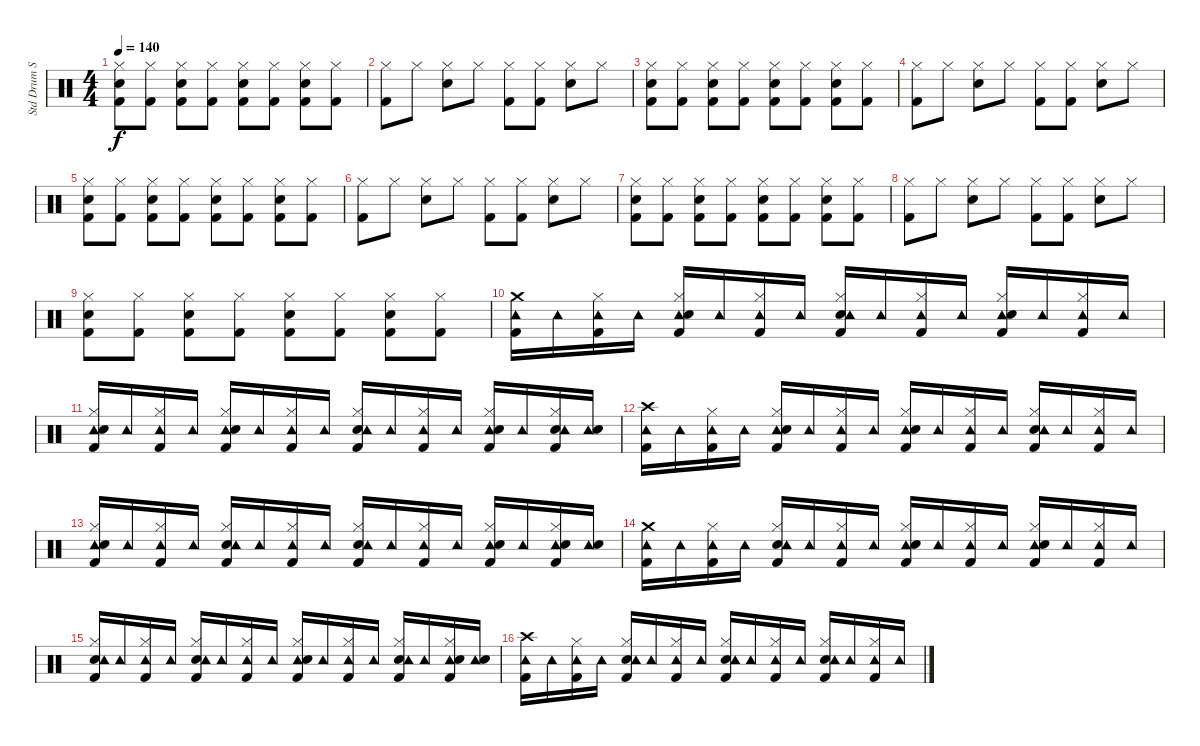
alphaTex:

\track ("Std Drum Set" "Std Drum S") {instrument percussion}
\staff {score}
\articulation defaults
\ts (4 4)
\tempo 140
\clef neutral
\ks c
("Kick (hit) 2" "Snare (hit) 2" "Hi-Hat (closed)").8{dy f} ("Hi-Hat (closed)" "Kick (hit) 2").8 ("Kick (hit) 2" "Hi-Hat (closed)" "Snare (hit) 2").8 ("Kick (hit) 2" "Hi-Hat (closed)").8 ("Snare (hit) 2" "Kick (hit) 2" "Hi-Hat (closed)").8 ("Hi-Hat (closed)" "Kick (hit) 2").8 ("Kick (hit) 2" "Snare (hit) 2" "Hi-Hat (closed)").8 ("Hi-Hat (closed)" "Kick (hit) 2").8 |
("Kick (hit) 2" "Hi-Hat (closed)").8 "Hi-Hat (closed)".8 ("Hi-Hat (closed)" "Snare (hit) 2").8 "Hi-Hat (closed)".8 ("Hi-Hat (closed)" "Kick (hit) 2").8 ("Kick (hit) 2" "Hi-Hat (closed)").8 ("Hi-Hat (closed)" "Snare (hit) 2").8 "Hi-Hat (closed)".8 |
("Snare (hit) 2" "Hi-Hat (closed)" "Kick (hit) 2").8 ("Hi-Hat (closed)" "Kick (hit) 2").8 ("Hi-Hat (closed)" "Kick (hit) 2" "Snare (hit) 2").8 ("Hi-Hat (closed)" "Kick (hit) 2").8 ("Kick (hit) 2" "Snare (hit) 2" "Hi-Hat (closed)").8 ("Kick (hit) 2" "Hi-Hat (closed)").8 ("Hi-Hat (closed)" "Kick (hit) 2" "Snare (hit) 2").8 ("Kick (hit) 2" "Hi-Hat (closed)").8 |
("Kick (hit) 2" "Hi-Hat (closed)").8 "Hi-Hat (closed)".8 ("Hi-Hat (closed)" "Snare (hit) 2").8 "Hi-Hat (closed)".8 ("Kick (hit) 2" "Hi-Hat (closed)").8 ("Hi-Hat (closed)" "Kick (hit) 2").8 ("Snare (hit) 2" "Hi-Hat (closed)").8 "Hi-Hat (closed)".8 |
("Hi-Hat (closed)" "Kick (hit) 2" "Snare (hit) 2").8 ("Hi-Hat (closed)" "Kick (hit) 2").8 ("Hi-Hat (closed)" "Kick (hit) 2" "Snare (hit) 2").8 ("Hi-Hat (closed)" "Kick (hit) 2").8 ("Hi-Hat (closed)" "Snare (hit) 2" "Kick (hit) 2").8 ("Hi-Hat (closed)" "Kick (hit) 2").8 ("Kick (hit) 2" "Hi-Hat (closed)" "Snare (hit) 2").8 ("Hi-Hat (closed)" "Kick (hit) 2").8 |
("Kick (hit) 2" "Hi-Hat (closed)").8 "Hi-Hat (closed)".8 ("Snare (hit) 2" "Hi-Hat (closed)").8 "Hi-Hat (closed)".8 ("Kick (hit) 2" "Hi-Hat (closed)").8 ("Kick (hit) 2" "Hi-Hat (closed)").8 ("Hi-Hat (closed)" "Snare (hit) 2").8 "Hi-Hat (closed)".8 |
("Snare (hit) 2" "Kick (hit) 2" "Hi-Hat (closed)").8 ("Hi-Hat (closed)" "Kick (hit) 2").8 ("Snare (hit) 2" "Kick (hit) 2" "Hi-Hat (closed)").8 ("Kick (hit) 2" "Hi-Hat (closed)").8 ("Kick (hit) 2" "Snare (hit) 2" "Hi-Hat (closed)").8 ("Kick (hit) 2" "Hi-Hat (closed)").8 ("Hi-Hat (closed)" "Snare (hit) 2" "Kick (hit) 2").8 ("Hi-Hat (closed)" "Kick (hit) 2").8 |
("Kick (hit) 2" "Hi-Hat (closed)").8 "Hi-Hat (closed)".8 ("Hi-Hat (closed)" "Snare (hit) 2").8 "Hi-Hat (closed)".8 ("Hi-Hat (closed)" "Kick (hit) 2").8 ("Kick (hit) 2" "Hi-Hat (closed)").8 ("Hi-Hat (closed)" "Snare (hit) 2").8 "Hi-Hat (closed)".8 |
("Hi-Hat (closed)" "Snare (hit) 2" "Kick (hit) 2").8 ("Kick (hit) 2" "Hi-Hat (closed)").8 ("Hi-Hat (closed)" "Snare (hit) 2" "Kick (hit) 2").8 ("Kick (hit) 2" "Hi-Hat (closed)").8 ("Kick (hit) 2" "Snare (hit) 2" "Hi-Hat (closed)").8 ("Hi-Hat (closed)" "Kick (hit) 2").8 ("Hi-Hat (closed)" "Snare (hit) 2" "Kick (hit) 2").8 ("Kick (hit) 2" "Hi-Hat (closed)").8 |
("Tambourine (hit)" "Kick (hit) 2" "Crash medium (hit)").16 "Tambourine (hit)".16 ("Kick (hit) 2" "Hi-Hat (closed)" "Tambourine (hit)").16 "Tambourine (hit)".16 ("Tambourine (hit)" "Hi-Hat (closed)" "Snare (hit) 2" "Kick (hit) 2").16 "Tambourine (hit)".16 ("Kick (hit) 2" "Hi-Hat (closed)" "Tambourine (hit)").16 "Tambourine (hit)".16 ("Hi-Hat (closed)" "Snare (hit) 2" "Tambourine (hit)" "Kick (hit) 2").16 "Tambourine (hit)".16 ("Hi-Hat (closed)" "Tambourine (hit)" "Kick (hit) 2").16 "Tambourine (hit)".16 ("Hi-Hat (closed)" "Kick (hit) 2" "Tambourine (hit)" "Snare (hit) 2").16 "Tambourine (hit)".16 ("Kick (hit) 2" "Hi-Hat (closed)" "Tambourine (hit)").16 "Tambourine (hit)".16 |
("Hi-Hat (closed)" "Tambourine (hit)" "Kick (hit) 2" "Snare (hit) 2").16 "Tambourine (hit)".16 ("Hi-Hat (closed)" "Tambourine (hit)" "Kick (hit) 2").16 "Tambourine (hit)".16 ("Kick (hit) 2" "Hi-Hat (closed)" "Tambourine (hit)" "Snare (hit) 2").16 "Tambourine (hit)".16 ("Tambourine (hit)" "Hi-Hat (closed)" "Kick (hit) 2").16 "Tambourine (hit)".16 ("Snare (hit) 2" "Hi-Hat (closed)" "Kick (hit) 2" "Tambourine (hit)").16 "Tambourine (hit)".16 ("Tambourine (hit)" "Kick (hit) 2" "Hi-Hat (closed)").16 "Tambourine (hit)".16 ("Tambourine (hit)" "Kick (hit) 2" "Hi-Hat (closed)" "Snare (hit) 2").16 "Tambourine (hit)".16 ("Snare (hit) 2" "Tambourine (hit)" "Hi-Hat (closed)" "Kick (hit) 2").16 ("Tambourine (hit)" "Snare (hit) 2").16 |
("Tambourine (hit)" "Crash high (hit)" "Kick (hit) 2").16 "Tambourine (hit)".16 ("Hi-Hat (closed)" "Kick (hit) 2" "Tambourine (hit)").16 "Tambourine (hit)".16 ("Kick (hit) 2" "Tambourine (hit)" "Snare (hit) 2" "Hi-Hat (closed)").16 "Tambourine (hit)".16 ("Hi-Hat (closed)" "Kick (hit) 2" "Tambourine (hit)").16 "Tambourine (hit)".16 ("Hi-Hat (closed)" "Tambourine (hit)" "Snare (hit) 2" "Kick (hit) 2").16 "Tambourine (hit)".16 ("Tambourine (hit)" "Hi-Hat (closed)" "Kick (hit) 2").16 "Tambourine (hit)".16 ("Kick (hit) 2" "Snare (hit) 2" "Hi-Hat (closed)" "Tambourine (hit)").16 "Tambourine (hit)".16 ("Hi-Hat (closed)" "Tambourine (hit)" "Kick (hit) 2").16 "Tambourine (hit)".16 |
("Tambourine (hit)" "Hi-Hat (closed)" "Snare (hit) 2" "Kick (hit) 2").16 "Tambourine (hit)".16 ("Kick (hit) 2" "Tambourine (hit)" "Hi-Hat (closed)").16 "Tambourine (hit)".16 ("Snare (hit) 2" "Hi-Hat (closed)" "Kick (hit) 2" "Tambourine (hit)").16 "Tambourine (hit)".16 ("Hi-Hat (closed)" "Tambourine (hit)" "Kick (hit) 2").16 "Tambourine (hit)".16 ("Snare (hit) 2" "Hi-Hat (closed)" "Tambourine (hit)" "Kick (hit) 2").16 "Tambourine (hit)".16 ("Tambourine (hit)" "Kick (hit) 2" "Hi-Hat (closed)").16 "Tambourine (hit)".16 ("Tambourine (hit)" "Hi-Hat (closed)" "Snare (hit) 2" "Kick (hit) 2").16 "Tambourine (hit)".16 ("Tambourine (hit)" "Snare (hit) 2" "Kick (hit) 2" "Hi-Hat (closed)").16 ("Tambourine (hit)" "Snare (hit) 2").16 |
("Tambourine (hit)" "Kick (hit) 2" "Crash medium (hit)").16 "Tambourine (hit)".16 ("Tambourine (hit)" "Kick (hit) 2" "Hi-Hat (closed)").16 "Tambourine (hit)".16 ("Snare (hit) 2" "Hi-Hat (closed)" "Tambourine (hit)" "Kick (hit) 2").16 "Tambourine (hit)".16 ("Hi-Hat (closed)" "Tambourine (hit)" "Kick (hit) 2").16 "Tambourine (hit)".16 ("Tambourine (hit)" "Kick (hit) 2" "Snare (hit) 2" "Hi-Hat (closed)").16 "Tambourine (hit)".16 ("Kick (hit) 2" "Tambourine (hit)" "Hi-Hat (closed)").16 "Tambourine (hit)".16 ("Hi-Hat (closed)" "Tambourine (hit)" "Snare (hit) 2" "Kick (hit) 2").16 "Tambourine (hit)".16 ("Tambourine (hit)" "Hi-Hat (closed)" "Kick (hit) 2").16 "Tambourine (hit)".16 |
("Snare (hit) 2" "Tambourine (hit)" "Kick (hit) 2" "Hi-Hat (closed)").16 "Tambourine (hit)".16 ("Tambourine (hit)" "Kick (hit) 2" "Hi-Hat (closed)").16 "Tambourine (hit)".16 ("Hi-Hat (closed)" "Snare (hit) 2" "Tambourine (hit)" "Kick (hit) 2").16 "Tambourine (hit)".16 ("Kick (hit) 2" "Hi-Hat (closed)" "Tambourine (hit)").16 "Tambourine (hit)".16 ("Kick (hit) 2" "Hi-Hat (closed)" "Tambourine (hit)" "Snare (hit) 2").16 "Tambourine (hit)".16 ("Hi-Hat (closed)" "Kick (hit) 2" "Tambourine (hit)").16 "Tambourine (hit)".16 ("Kick (hit) 2" "Hi-Hat (closed)" "Snare (hit) 2" "Tambourine (hit)").16 "Tambourine (hit)".16 ("Kick (hit) 2" "Tambourine (hit)" "Hi-Hat (closed)" "Snare (hit) 2").16 ("Tambourine (hit)" "Snare (hit) 2").16 |
("Kick (hit) 2" "Crash high (hit)" "Tambourine (hit)").16 "Tambourine (hit)".16 ("Hi-Hat (closed)" "Tambourine (hit)" "Kick (hit) 2").16 "Tambourine (hit)".16 ("Snare (hit) 2" "Kick (hit) 2" "Tambourine (hit)" "Hi-Hat (closed)").16 "Tambourine (hit)".16 ("Kick (hit) 2" "Hi-Hat (closed)" "Tambourine (hit)").16 "Tambourine (hit)".16 ("Snare (hit) 2" "Kick (hit) 2" "Tambourine (hit)" "Hi-Hat (closed)").16 "Tambourine (hit)".16 ("Tambourine (hit)" "Kick (hit) 2" "Hi-Hat (closed)").16 "Tambourine (hit)".16 ("Hi-Hat (closed)" "Snare (hit) 2" "Kick (hit) 2" "Tambourine (hit)").16 "Tambourine (hit)".16 ("Kick (hit) 2" "Hi-Hat (closed)" "Tambourine (hit)").16 "Tambourine (hit)".16
